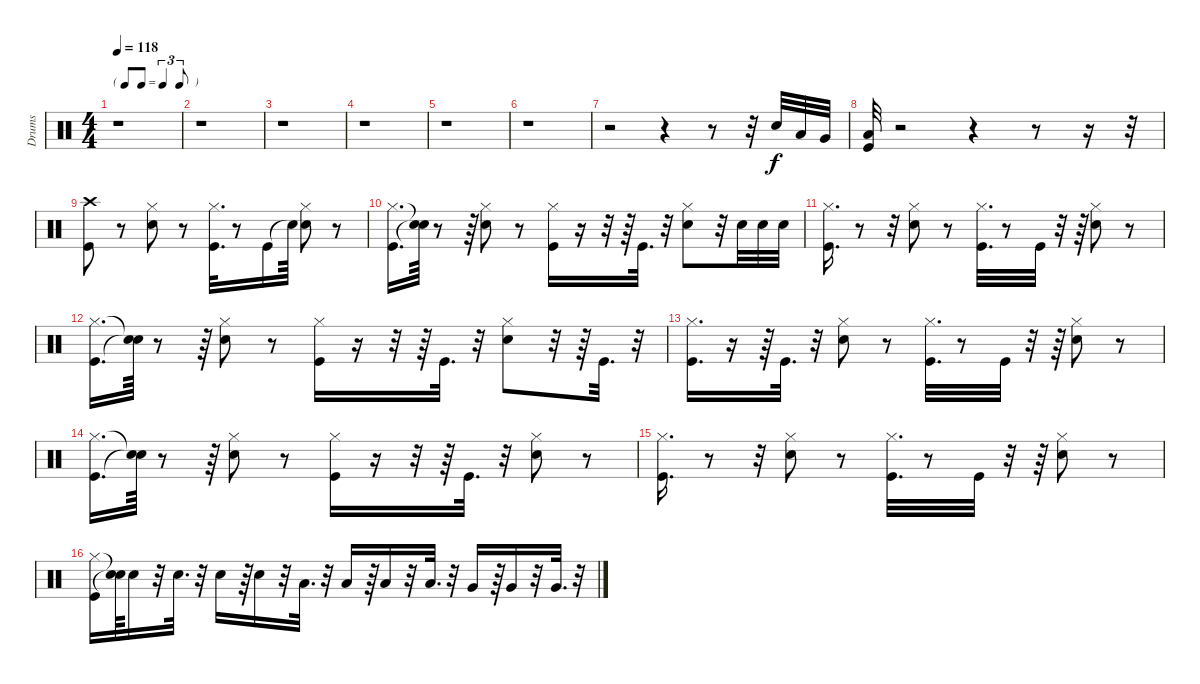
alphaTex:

\track ("Drums" "Drums") {instrument percussion}
\staff {score}
\articulation defaults
\ts (4 4)
\tf triplet8th
\tempo 118
\clef neutral
\ks c
r.1{dy f} |
r.1 |
r.1 |
r.1 |
r.1 |
r.1 |
r.2 r.4 r.8 r.32 "Snare (hit) 2".32 "Low Tom (hit)".32 "Very Low Tom (hit)".32 |
("Kick (hit)" "Low Floor Tom (hit)").32 r.2 r.4 r.8 r.16 r.32 |
("Crash high (hit)" "Kick (hit)").8 r.8 ("Hi-Hat (closed)" "Snare (hit) 2").8 r.8 ("Hi-Hat (closed)" "Kick (hit)").32{d} r.8 "Kick (hit)".16 "Snare (hit)"{t}.64 ("Hi-Hat (closed)" "Snare (hit) 2").8 r.8 |
("Hi-Hat (closed)" "Kick (hit)").16{d} ("Snare (hit)"{t} "Snare (hit)"{t}).64 r.8 r.64 ("Hi-Hat (closed)" "Snare (hit) 2").8 r.8 ("Hi-Hat (closed)" "Kick (hit)").16 r.16 r.32 r.64 "Kick (hit)".32{d} r.32 ("Hi-Hat (closed)" "Snare (hit) 2").8 r.32 "Snare (hit) 2".32 "Snare (hit) 2".32 "Snare (hit) 2".32 |
("Hi-Hat (closed)" "Kick (hit)").16{d} r.8 r.32 ("Hi-Hat (closed)" "Snare (hit) 2").8 r.8 ("Hi-Hat (closed)" "Kick (hit)").32{d} r.8 "Kick (hit)".32 r.32 r.64 ("Hi-Hat (closed)" "Snare (hit) 2").8 r.8 |
("Hi-Hat (closed)" "Kick (hit)").16{d} ("Snare (hit)"{t} "Snare (hit)"{t}).64 r.8 r.64 ("Snare (hit) 2" "Hi-Hat (closed)").8 r.8 ("Kick (hit)" "Hi-Hat (closed)").16 r.16 r.32 r.64 "Kick (hit)".32{d} r.32 ("Hi-Hat (closed)" "Snare (hit) 2").8 r.32 r.64 "Kick (hit)".32{d} r.32 |
("Kick (hit)" "Hi-Hat (closed)").16{d} r.16 r.64 "Kick (hit)".32{d} r.32 ("Snare (hit) 2" "Hi-Hat (closed)").8 r.8 ("Hi-Hat (closed)" "Kick (hit)").32{d} r.8 "Kick (hit)".32 r.32 r.64 ("Hi-Hat (closed)" "Snare (hit) 2").8 r.8 |
("Hi-Hat (closed)" "Kick (hit)").16{d} ("Snare (hit)"{t} "Snare (hit)"{t}).64 r.8 r.64 ("Snare (hit) 2" "Hi-Hat (closed)").8 r.8 ("Kick (hit)" "Hi-Hat (closed)").16 r.16 r.32 r.64 "Kick (hit)".32{d} r.32 ("Hi-Hat (closed)" "Snare (hit) 2").8 r.8 |
("Kick (hit)" "Hi-Hat (closed)").16{d} r.8 r.32 ("Snare (hit) 2" "Hi-Hat (closed)").8 r.8 ("Hi-Hat (closed)" "Kick (hit)").32{d} r.8 "Kick (hit)".32 r.32 r.64 ("Hi-Hat (closed)" "Snare (hit) 2").8 r.8 |
("Hi-Hat (closed)" "Kick (hit)").16 ("Snare (hit)"{t} "Snare (hit)"{t}).64 "Snare (hit) 2".16 r.32 "Snare (hit) 2".32{d} r.32 "Snare (hit) 2".16 r.64 "Snare (hit) 2".16 r.32 "Low Tom (hit)".32{d} r.32 "Low Tom (hit)".16 r.64 "Low Tom (hit)".16 r.32 "Low Tom (hit)".32{d} r.32 "Very Low Tom (hit)".16 r.64 "Very Low Tom (hit)".16 r.32 "Very Low Tom (hit)".32{d} r.32
